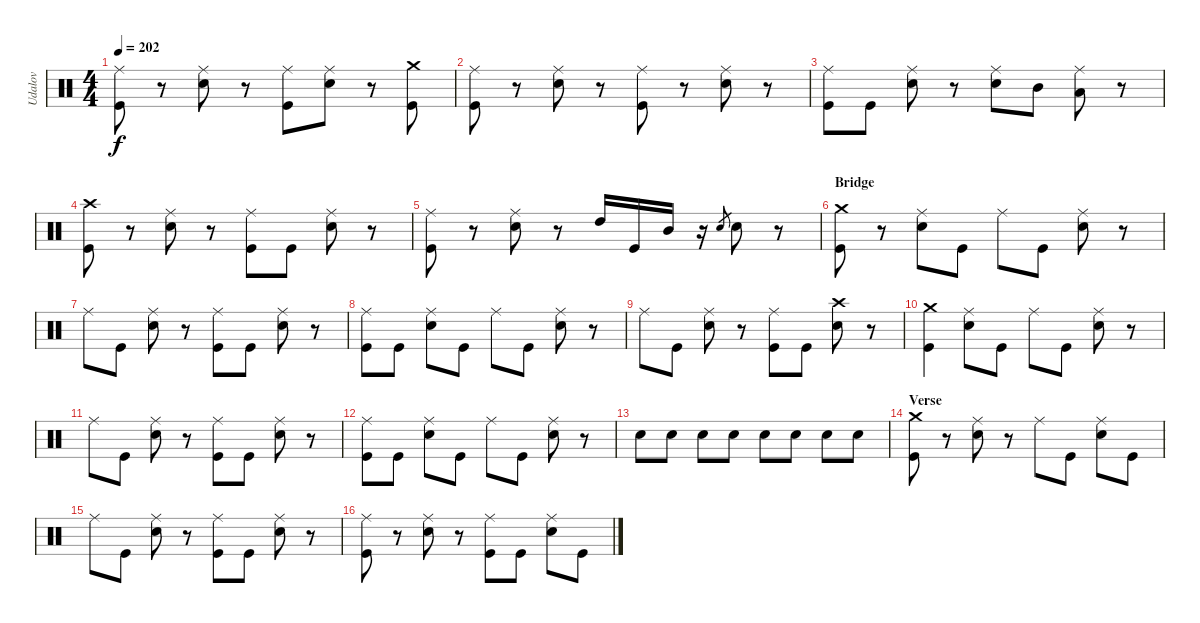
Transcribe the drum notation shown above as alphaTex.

\track ("Udalov" "Udalov") {instrument percussion}
\staff {score}
\articulation defaults
\ts (4 4)
\tempo 202
\clef neutral
\ks c
("Kick (hit)" "Ride (middle)").8{dy f} r.8 ("Electric Snare (hit)" "Ride (middle)").8 r.8 ("Kick (hit)" "Ride (middle)").8 ("Electric Snare (hit)" "Ride (middle)").8 r.8 ("Kick (hit)" "Crash medium (hit)").8 |
("Kick (hit)" "Ride (middle)").8 r.8 ("Electric Snare (hit)" "Ride (middle)").8 r.8 ("Kick (hit)" "Ride (middle)").8 r.8 ("Electric Snare (hit)" "Ride (middle)").8 r.8 |
("Kick (hit)" "Ride (middle)").8 "Kick (hit)".8 ("Electric Snare (hit)" "Ride (middle)").8 r.8 ("Electric Snare (hit)" "Ride (middle)").8 "Mid Tom (hit)".8 ("Low Tom (hit)" "Ride (middle)").8 r.8 |
("Kick (hit)" "Crash high (hit)").8 r.8 ("Electric Snare (hit)" "Ride (middle)").8 r.8 ("Kick (hit)" "Ride (middle)").8 "Kick (hit)".8 ("Electric Snare (hit)" "Ride (middle)").8 r.8 |
("Kick (hit)" "Ride (middle)").8 r.8 ("Electric Snare (hit)" "Ride (middle)").8 r.8 "High Tom (hit)".16 "Kick (hit)".16 "Mid Tom (hit)".16 r.16 "Electric Snare (hit)".8{gr} "Electric Snare (hit)".8 r.8 |
\section ("" "Bridge")
("Kick (hit)" "Crash medium (hit)").8 r.8 ("Electric Snare (hit)" "Ride (middle)").8 "Kick (hit)".8 "Ride (middle)".8 "Kick (hit)".8 ("Electric Snare (hit)" "Ride (middle)").8 r.8 |
"Ride (middle)".8 "Kick (hit)".8 ("Electric Snare (hit)" "Ride (middle)").8 r.8 ("Kick (hit)" "Ride (middle)").8 "Kick (hit)".8 ("Electric Snare (hit)" "Ride (middle)").8 r.8 |
("Kick (hit)" "Ride (middle)").8 "Kick (hit)".8 ("Electric Snare (hit)" "Ride (middle)").8 "Kick (hit)".8 "Ride (middle)".8 "Kick (hit)".8 ("Electric Snare (hit)" "Ride (middle)").8 r.8 |
"Ride (middle)".8 "Kick (hit)".8 ("Electric Snare (hit)" "Ride (middle)").8 r.8 ("Kick (hit)" "Ride (middle)").8 "Kick (hit)".8 ("Electric Snare (hit)" "Crash high (hit)").8 r.8 |
("Kick (hit)" "Crash medium (hit)").4 ("Electric Snare (hit)" "Ride (middle)").8 "Kick (hit)".8 "Ride (middle)".8 "Kick (hit)".8 ("Electric Snare (hit)" "Ride (middle)").8 r.8 |
"Ride (middle)".8 "Kick (hit)".8 ("Electric Snare (hit)" "Ride (middle)").8 r.8 ("Kick (hit)" "Ride (middle)").8 "Kick (hit)".8 ("Electric Snare (hit)" "Ride (middle)").8 r.8 |
("Kick (hit)" "Ride (middle)").8 "Kick (hit)".8 ("Electric Snare (hit)" "Ride (middle)").8 "Kick (hit)".8 "Ride (middle)".8 "Kick (hit)".8 ("Electric Snare (hit)" "Ride (middle)").8 r.8 |
"Electric Snare (hit)".8 "Electric Snare (hit)".8 "Electric Snare (hit)".8 "Electric Snare (hit)".8 "Electric Snare (hit)".8 "Electric Snare (hit)".8 "Electric Snare (hit)".8 "Electric Snare (hit)".8 |
\section ("" "Verse")
("Kick (hit)" "Crash medium (hit)").8 r.8 ("Electric Snare (hit)" "Ride (middle)").8 r.8 "Ride (middle)".8 "Kick (hit)".8 ("Electric Snare (hit)" "Ride (middle)").8 "Kick (hit)".8 |
"Ride (middle)".8 "Kick (hit)".8 ("Electric Snare (hit)" "Ride (middle)").8 r.8 ("Kick (hit)" "Ride (middle)").8 "Kick (hit)".8 ("Electric Snare (hit)" "Ride (middle)").8 r.8 |
("Kick (hit)" "Ride (middle)").8 r.8 ("Electric Snare (hit)" "Ride (middle)").8 r.8 ("Kick (hit)" "Ride (middle)").8 "Kick (hit)".8 ("Electric Snare (hit)" "Ride (middle)").8 "Kick (hit)".8
